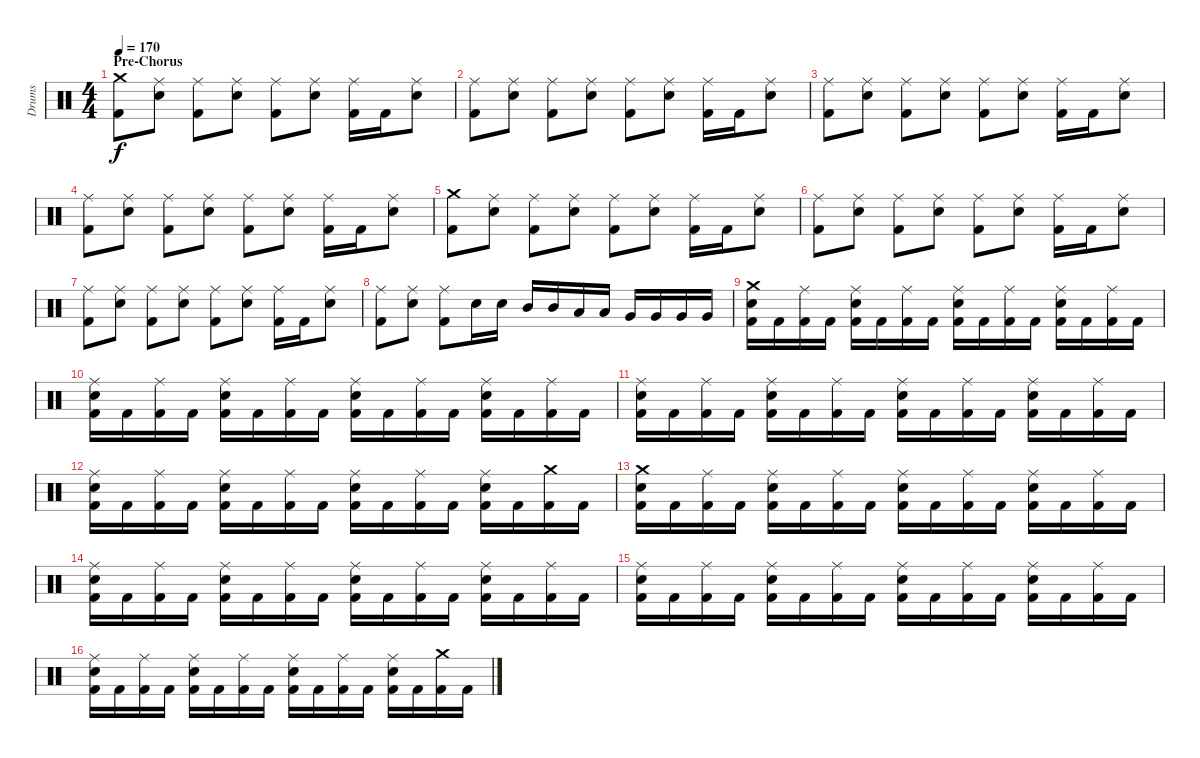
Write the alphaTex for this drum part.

\track ("Drums" "Drums") {instrument percussion}
\staff {score}
\articulation defaults
\ts (4 4)
\section ("" "Pre-Chorus")
\tempo 170
\clef neutral
\ks c
("Crash medium (hit)" "Kick (hit) 2").8{dy f} ("Ride (middle)" "Electric Snare (hit)").8 ("Ride (middle)" "Kick (hit) 2").8 ("Ride (middle)" "Electric Snare (hit)").8 ("Ride (middle)" "Kick (hit) 2").8 ("Ride (middle)" "Electric Snare (hit)").8 ("Ride (middle)" "Kick (hit) 2").16 "Kick (hit) 2".16 ("Ride (middle)" "Electric Snare (hit)").8 |
("Ride (middle)" "Kick (hit) 2").8 ("Ride (middle)" "Electric Snare (hit)").8 ("Ride (middle)" "Kick (hit) 2").8 ("Ride (middle)" "Electric Snare (hit)").8 ("Ride (middle)" "Kick (hit) 2").8 ("Ride (middle)" "Electric Snare (hit)").8 ("Ride (middle)" "Kick (hit) 2").16 "Kick (hit) 2".16 ("Ride (middle)" "Electric Snare (hit)").8 |
("Ride (middle)" "Kick (hit) 2").8 ("Ride (middle)" "Electric Snare (hit)").8 ("Ride (middle)" "Kick (hit) 2").8 ("Ride (middle)" "Electric Snare (hit)").8 ("Ride (middle)" "Kick (hit) 2").8 ("Ride (middle)" "Electric Snare (hit)").8 ("Ride (middle)" "Kick (hit) 2").16 "Kick (hit) 2".16 ("Ride (middle)" "Electric Snare (hit)").8 |
("Ride (middle)" "Kick (hit) 2").8 ("Ride (middle)" "Electric Snare (hit)").8 ("Ride (middle)" "Kick (hit) 2").8 ("Ride (middle)" "Electric Snare (hit)").8 ("Ride (middle)" "Kick (hit) 2").8 ("Ride (middle)" "Electric Snare (hit)").8 ("Ride (middle)" "Kick (hit) 2").16 "Kick (hit) 2".16 ("Ride (middle)" "Electric Snare (hit)").8 |
("Crash medium (hit)" "Kick (hit) 2").8 ("Ride (middle)" "Electric Snare (hit)").8 ("Ride (middle)" "Kick (hit) 2").8 ("Ride (middle)" "Electric Snare (hit)").8 ("Ride (middle)" "Kick (hit) 2").8 ("Ride (middle)" "Electric Snare (hit)").8 ("Ride (middle)" "Kick (hit) 2").16 "Kick (hit) 2".16 ("Ride (middle)" "Electric Snare (hit)").8 |
("Ride (middle)" "Kick (hit) 2").8 ("Ride (middle)" "Electric Snare (hit)").8 ("Ride (middle)" "Kick (hit) 2").8 ("Ride (middle)" "Electric Snare (hit)").8 ("Ride (middle)" "Kick (hit) 2").8 ("Ride (middle)" "Electric Snare (hit)").8 ("Ride (middle)" "Kick (hit) 2").16 "Kick (hit) 2".16 ("Ride (middle)" "Electric Snare (hit)").8 |
("Ride (middle)" "Kick (hit) 2").8 ("Ride (middle)" "Electric Snare (hit)").8 ("Ride (middle)" "Kick (hit) 2").8 ("Ride (middle)" "Electric Snare (hit)").8 ("Ride (middle)" "Kick (hit) 2").8 ("Ride (middle)" "Electric Snare (hit)").8 ("Ride (middle)" "Kick (hit) 2").16 "Kick (hit) 2".16 ("Ride (middle)" "Electric Snare (hit)").8 |
("Ride (middle)" "Kick (hit) 2").8 ("Ride (middle)" "Electric Snare (hit)").8 ("Ride (middle)" "Kick (hit) 2").8 "Electric Snare (hit)".16 "Electric Snare (hit)".16 "Mid Tom (hit)".16 "Mid Tom (hit)".16 "Low Tom (hit)".16 "Low Tom (hit)".16 "Very Low Tom (hit)".16 "Very Low Tom (hit)".16 "Very Low Tom (hit)".16 "Very Low Tom (hit)".16 |
("Crash medium (hit)" "Electric Snare (hit)" "Kick (hit) 2").16 "Kick (hit) 2".16 ("Ride (middle)" "Kick (hit) 2").16 "Kick (hit) 2".16 ("Ride (middle)" "Electric Snare (hit)" "Kick (hit) 2").16 "Kick (hit) 2".16 ("Ride (middle)" "Kick (hit) 2").16 "Kick (hit) 2".16 ("Ride (middle)" "Electric Snare (hit)" "Kick (hit) 2").16 "Kick (hit) 2".16 ("Ride (middle)" "Kick (hit) 2").16 "Kick (hit) 2".16 ("Ride (middle)" "Electric Snare (hit)" "Kick (hit) 2").16 "Kick (hit) 2".16 ("Ride (middle)" "Kick (hit) 2").16 "Kick (hit) 2".16 |
("Ride (middle)" "Electric Snare (hit)" "Kick (hit) 2").16 "Kick (hit) 2".16 ("Ride (middle)" "Kick (hit) 2").16 "Kick (hit) 2".16 ("Ride (middle)" "Electric Snare (hit)" "Kick (hit) 2").16 "Kick (hit) 2".16 ("Ride (middle)" "Kick (hit) 2").16 "Kick (hit) 2".16 ("Ride (middle)" "Electric Snare (hit)" "Kick (hit) 2").16 "Kick (hit) 2".16 ("Ride (middle)" "Kick (hit) 2").16 "Kick (hit) 2".16 ("Ride (middle)" "Electric Snare (hit)" "Kick (hit) 2").16 "Kick (hit) 2".16 ("Ride (middle)" "Kick (hit) 2").16 "Kick (hit) 2".16 |
("Ride (middle)" "Electric Snare (hit)" "Kick (hit) 2").16 "Kick (hit) 2".16 ("Ride (middle)" "Kick (hit) 2").16 "Kick (hit) 2".16 ("Ride (middle)" "Electric Snare (hit)" "Kick (hit) 2").16 "Kick (hit) 2".16 ("Ride (middle)" "Kick (hit) 2").16 "Kick (hit) 2".16 ("Ride (middle)" "Electric Snare (hit)" "Kick (hit) 2").16 "Kick (hit) 2".16 ("Ride (middle)" "Kick (hit) 2").16 "Kick (hit) 2".16 ("Ride (middle)" "Electric Snare (hit)" "Kick (hit) 2").16 "Kick (hit) 2".16 ("Ride (middle)" "Kick (hit) 2").16 "Kick (hit) 2".16 |
("Ride (middle)" "Electric Snare (hit)" "Kick (hit) 2").16 "Kick (hit) 2".16 ("Ride (middle)" "Kick (hit) 2").16 "Kick (hit) 2".16 ("Ride (middle)" "Electric Snare (hit)" "Kick (hit) 2").16 "Kick (hit) 2".16 ("Ride (middle)" "Kick (hit) 2").16 "Kick (hit) 2".16 ("Ride (middle)" "Electric Snare (hit)" "Kick (hit) 2").16 "Kick (hit) 2".16 ("Ride (middle)" "Kick (hit) 2").16 "Kick (hit) 2".16 ("Ride (middle)" "Electric Snare (hit)" "Kick (hit) 2").16 "Kick (hit) 2".16 ("Crash medium (hit)" "Kick (hit) 2").16 "Kick (hit) 2".16 |
("Crash medium (hit)" "Electric Snare (hit)" "Kick (hit) 2").16 "Kick (hit) 2".16 ("Ride (middle)" "Kick (hit) 2").16 "Kick (hit) 2".16 ("Ride (middle)" "Electric Snare (hit)" "Kick (hit) 2").16 "Kick (hit) 2".16 ("Ride (middle)" "Kick (hit) 2").16 "Kick (hit) 2".16 ("Ride (middle)" "Electric Snare (hit)" "Kick (hit) 2").16 "Kick (hit) 2".16 ("Ride (middle)" "Kick (hit) 2").16 "Kick (hit) 2".16 ("Ride (middle)" "Electric Snare (hit)" "Kick (hit) 2").16 "Kick (hit) 2".16 ("Ride (middle)" "Kick (hit) 2").16 "Kick (hit) 2".16 |
("Ride (middle)" "Electric Snare (hit)" "Kick (hit) 2").16 "Kick (hit) 2".16 ("Ride (middle)" "Kick (hit) 2").16 "Kick (hit) 2".16 ("Ride (middle)" "Electric Snare (hit)" "Kick (hit) 2").16 "Kick (hit) 2".16 ("Ride (middle)" "Kick (hit) 2").16 "Kick (hit) 2".16 ("Ride (middle)" "Electric Snare (hit)" "Kick (hit) 2").16 "Kick (hit) 2".16 ("Ride (middle)" "Kick (hit) 2").16 "Kick (hit) 2".16 ("Ride (middle)" "Electric Snare (hit)" "Kick (hit) 2").16 "Kick (hit) 2".16 ("Ride (middle)" "Kick (hit) 2").16 "Kick (hit) 2".16 |
("Ride (middle)" "Electric Snare (hit)" "Kick (hit) 2").16 "Kick (hit) 2".16 ("Ride (middle)" "Kick (hit) 2").16 "Kick (hit) 2".16 ("Ride (middle)" "Electric Snare (hit)" "Kick (hit) 2").16 "Kick (hit) 2".16 ("Ride (middle)" "Kick (hit) 2").16 "Kick (hit) 2".16 ("Ride (middle)" "Electric Snare (hit)" "Kick (hit) 2").16 "Kick (hit) 2".16 ("Ride (middle)" "Kick (hit) 2").16 "Kick (hit) 2".16 ("Ride (middle)" "Electric Snare (hit)" "Kick (hit) 2").16 "Kick (hit) 2".16 ("Ride (middle)" "Kick (hit) 2").16 "Kick (hit) 2".16 |
("Ride (middle)" "Electric Snare (hit)" "Kick (hit) 2").16 "Kick (hit) 2".16 ("Ride (middle)" "Kick (hit) 2").16 "Kick (hit) 2".16 ("Ride (middle)" "Electric Snare (hit)" "Kick (hit) 2").16 "Kick (hit) 2".16 ("Ride (middle)" "Kick (hit) 2").16 "Kick (hit) 2".16 ("Ride (middle)" "Electric Snare (hit)" "Kick (hit) 2").16 "Kick (hit) 2".16 ("Ride (middle)" "Kick (hit) 2").16 "Kick (hit) 2".16 ("Ride (middle)" "Electric Snare (hit)" "Kick (hit) 2").16 "Kick (hit) 2".16 ("Crash medium (hit)" "Kick (hit) 2").16 "Kick (hit) 2".16
